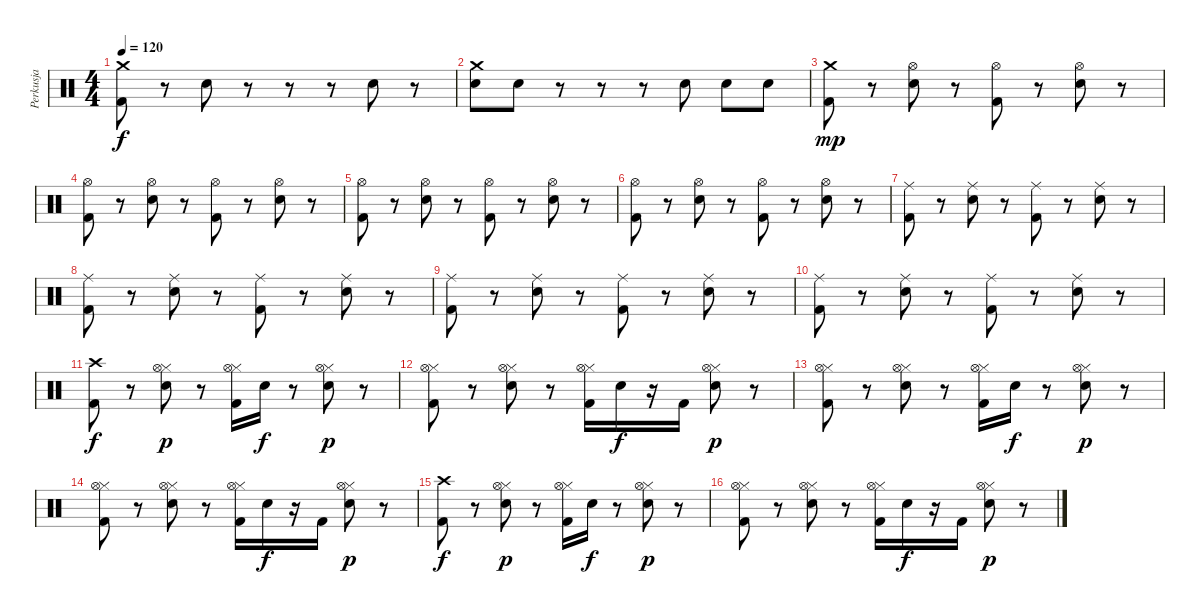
\track ("Perkusja" "Perkusja") {instrument percussion}
\staff {score}
\articulation defaults
\ts (4 4)
\tempo 120
\clef neutral
\ks c
("Kick (hit) 2" "Crash medium (hit)").8{dy f} r.8 "Electric Snare (hit)".8 r.8 r.8 r.8 "Electric Snare (hit)".8 r.8 |
("Electric Snare (hit)" "Crash medium (hit)").8 "Electric Snare (hit)".8 r.8 r.8 r.8 "Electric Snare (hit)".8 "Electric Snare (hit)".8 "Electric Snare (hit)".8 |
("Kick (hit) 2" "Crash medium (hit)").8{dy mp} r.8 ("Electric Snare (hit)" "Hi-Hat (open)").8 r.8 ("Kick (hit) 2" "Hi-Hat (open)").8 r.8 ("Electric Snare (hit)" "Hi-Hat (open)").8 r.8 |
("Kick (hit) 2" "Hi-Hat (open)").8 r.8 ("Electric Snare (hit)" "Hi-Hat (open)").8 r.8 ("Kick (hit) 2" "Hi-Hat (open)").8 r.8 ("Electric Snare (hit)" "Hi-Hat (open)").8 r.8 |
("Kick (hit) 2" "Hi-Hat (open)").8 r.8 ("Electric Snare (hit)" "Hi-Hat (open)").8 r.8 ("Kick (hit) 2" "Hi-Hat (open)").8 r.8 ("Electric Snare (hit)" "Hi-Hat (open)").8 r.8 |
("Kick (hit) 2" "Hi-Hat (open)").8 r.8 ("Electric Snare (hit)" "Hi-Hat (open)").8 r.8 ("Kick (hit) 2" "Hi-Hat (open)").8 r.8 ("Electric Snare (hit)" "Hi-Hat (open)").8 r.8 |
("Kick (hit) 2" "Ride (middle)").8 r.8 ("Electric Snare (hit)" "Ride (middle)").8 r.8 ("Kick (hit) 2" "Ride (middle)").8 r.8 ("Electric Snare (hit)" "Ride (middle)").8 r.8 |
("Kick (hit) 2" "Ride (middle)").8 r.8 ("Electric Snare (hit)" "Ride (middle)").8 r.8 ("Kick (hit) 2" "Ride (middle)").8 r.8 ("Electric Snare (hit)" "Ride (middle)").8 r.8 |
("Kick (hit) 2" "Ride (middle)").8 r.8 ("Electric Snare (hit)" "Ride (middle)").8 r.8 ("Kick (hit) 2" "Ride (middle)").8 r.8 ("Electric Snare (hit)" "Ride (middle)").8 r.8 |
("Kick (hit) 2" "Ride (middle)").8 r.8 ("Electric Snare (hit)" "Ride (middle)").8 r.8 ("Kick (hit) 2" "Ride (middle)").8 r.8 ("Electric Snare (hit)" "Ride (middle)").8 r.8 |
("Kick (hit) 2" "Crash high (hit)").8{dy f} r.8 ("Electric Snare (hit)" "Hi-Hat (closed)" "Hi-Hat (open)").8{dy p} r.8 ("Kick (hit) 2" "Hi-Hat (closed)" "Hi-Hat (open)").16 "Electric Snare (hit)".16{dy f} r.8 ("Electric Snare (hit)" "Hi-Hat (closed)" "Hi-Hat (open)").8{dy p} r.8 |
("Kick (hit) 2" "Hi-Hat (closed)" "Hi-Hat (open)").8 r.8 ("Electric Snare (hit)" "Hi-Hat (closed)" "Hi-Hat (open)").8 r.8 ("Kick (hit) 2" "Hi-Hat (closed)" "Hi-Hat (open)").16 "Electric Snare (hit)".16{dy f} r.16 "Kick (hit) 2".16 ("Electric Snare (hit)" "Hi-Hat (closed)" "Hi-Hat (open)").8{dy p} r.8 |
("Kick (hit) 2" "Hi-Hat (closed)" "Hi-Hat (open)").8 r.8 ("Electric Snare (hit)" "Hi-Hat (closed)" "Hi-Hat (open)").8 r.8 ("Kick (hit) 2" "Hi-Hat (closed)" "Hi-Hat (open)").16 "Electric Snare (hit)".16{dy f} r.8 ("Electric Snare (hit)" "Hi-Hat (closed)" "Hi-Hat (open)").8{dy p} r.8 |
("Kick (hit) 2" "Hi-Hat (closed)" "Hi-Hat (open)").8 r.8 ("Electric Snare (hit)" "Hi-Hat (closed)" "Hi-Hat (open)").8 r.8 ("Kick (hit) 2" "Hi-Hat (closed)" "Hi-Hat (open)").16 "Electric Snare (hit)".16{dy f} r.16 "Kick (hit) 2".16 ("Electric Snare (hit)" "Hi-Hat (closed)" "Hi-Hat (open)").8{dy p} r.8 |
("Kick (hit) 2" "Crash high (hit)").8{dy f} r.8 ("Electric Snare (hit)" "Hi-Hat (closed)" "Hi-Hat (open)").8{dy p} r.8 ("Kick (hit) 2" "Hi-Hat (closed)" "Hi-Hat (open)").16 "Electric Snare (hit)".16{dy f} r.8 ("Electric Snare (hit)" "Hi-Hat (closed)" "Hi-Hat (open)").8{dy p} r.8 |
("Kick (hit) 2" "Hi-Hat (closed)" "Hi-Hat (open)").8 r.8 ("Electric Snare (hit)" "Hi-Hat (closed)" "Hi-Hat (open)").8 r.8 ("Kick (hit) 2" "Hi-Hat (closed)" "Hi-Hat (open)").16 "Electric Snare (hit)".16{dy f} r.16 "Kick (hit) 2".16 ("Electric Snare (hit)" "Hi-Hat (closed)" "Hi-Hat (open)").8{dy p} r.8
